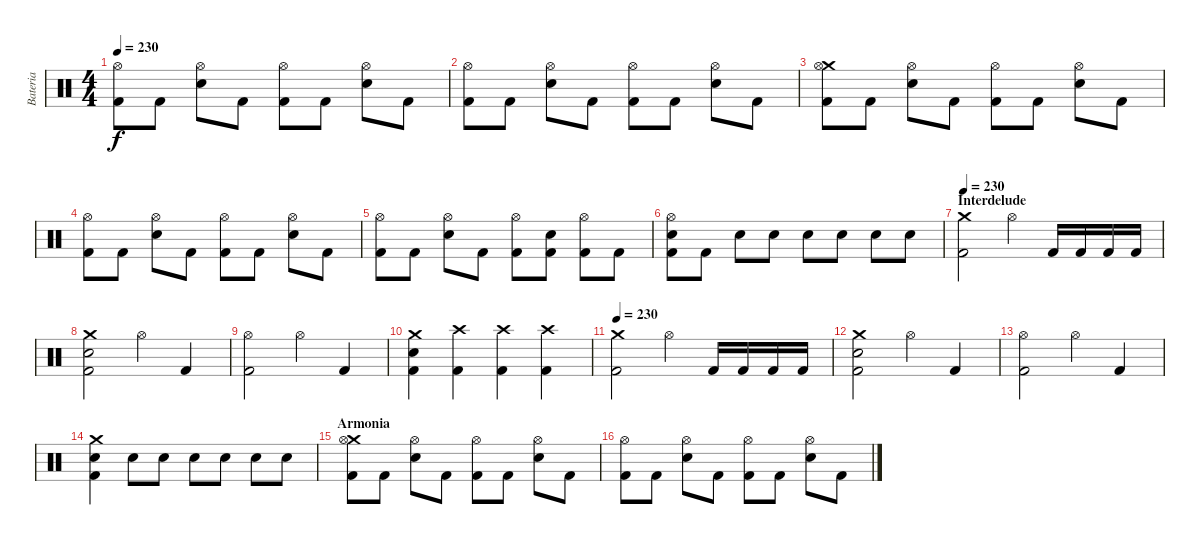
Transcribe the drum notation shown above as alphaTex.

\track ("Bateria" "Bateria") {instrument percussion}
\staff {score}
\articulation defaults
\ts (4 4)
\tempo 230
\clef neutral
\ks c
("Hi-Hat (open)" "Kick (hit) 2").8{dy f} "Kick (hit) 2".8 ("Hi-Hat (open)" "Snare (hit) 2").8 "Kick (hit) 2".8 ("Hi-Hat (open)" "Kick (hit) 2").8 "Kick (hit) 2".8 ("Hi-Hat (open)" "Snare (hit) 2").8 "Kick (hit) 2".8 |
("Hi-Hat (open)" "Kick (hit) 2").8 "Kick (hit) 2".8 ("Hi-Hat (open)" "Snare (hit) 2").8 "Kick (hit) 2".8 ("Hi-Hat (open)" "Kick (hit) 2").8 "Kick (hit) 2".8 ("Hi-Hat (open)" "Snare (hit) 2").8 "Kick (hit) 2".8 |
("Crash medium (hit)" "Hi-Hat (open)" "Kick (hit) 2").8 "Kick (hit) 2".8 ("Hi-Hat (open)" "Snare (hit) 2").8 "Kick (hit) 2".8 ("Hi-Hat (open)" "Kick (hit) 2").8 "Kick (hit) 2".8 ("Hi-Hat (open)" "Snare (hit) 2").8 "Kick (hit) 2".8 |
("Hi-Hat (open)" "Kick (hit) 2").8 "Kick (hit) 2".8 ("Hi-Hat (open)" "Snare (hit) 2").8 "Kick (hit) 2".8 ("Hi-Hat (open)" "Kick (hit) 2").8 "Kick (hit) 2".8 ("Hi-Hat (open)" "Snare (hit) 2").8 "Kick (hit) 2".8 |
("Hi-Hat (open)" "Kick (hit) 2").8 "Kick (hit) 2".8 ("Hi-Hat (open)" "Snare (hit) 2").8 "Kick (hit) 2".8 ("Hi-Hat (open)" "Kick (hit) 2").8 ("Snare (hit) 2" "Kick (hit) 2").8 ("Hi-Hat (open)" "Kick (hit) 2").8 "Kick (hit) 2".8 |
("Snare (hit) 2" "Hi-Hat (open)" "Kick (hit) 2").8 "Kick (hit) 2".8 "Snare (hit) 2".8 "Snare (hit) 2".8 "Snare (hit) 2".8 "Snare (hit) 2".8 "Snare (hit) 2".8 "Snare (hit) 2".8 |
\section ("" "Interdelude")
\tempo 230
("Crash medium (hit)" "Kick (hit) 2").2 "Hi-Hat (open)".4 "Kick (hit) 2".16 "Kick (hit) 2".16 "Kick (hit) 2".16 "Kick (hit) 2".16 |
("Kick (hit) 2" "Snare (hit) 2" "Crash medium (hit)").2 "Hi-Hat (open)".4 "Kick (hit) 2".4 |
("Kick (hit) 2" "Hi-Hat (open)").2 "Hi-Hat (open)".4 "Kick (hit) 2".4 |
("Kick (hit) 2" "Snare (hit) 2" "Crash medium (hit)").4 ("Crash high (hit)" "Kick (hit) 2").4 ("Kick (hit) 2" "Crash high (hit)").4 ("Crash high (hit)" "Kick (hit) 2").4 |
\tempo 230
("Crash medium (hit)" "Kick (hit) 2").2 "Hi-Hat (open)".4 "Kick (hit) 2".16 "Kick (hit) 2".16 "Kick (hit) 2".16 "Kick (hit) 2".16 |
("Kick (hit) 2" "Snare (hit) 2" "Crash medium (hit)").2 "Hi-Hat (open)".4 "Kick (hit) 2".4 |
("Kick (hit) 2" "Hi-Hat (open)").2 "Hi-Hat (open)".4 "Kick (hit) 2".4 |
("Kick (hit) 2" "Snare (hit) 2" "Crash medium (hit)").4 "Snare (hit) 2".8 "Snare (hit) 2".8 "Snare (hit) 2".8 "Snare (hit) 2".8 "Snare (hit) 2".8 "Snare (hit) 2".8 |
\section ("" "Armonia")
("Crash medium (hit)" "Hi-Hat (open)" "Kick (hit) 2").8 "Kick (hit) 2".8 ("Hi-Hat (open)" "Snare (hit) 2").8 "Kick (hit) 2".8 ("Hi-Hat (open)" "Kick (hit) 2").8 "Kick (hit) 2".8 ("Hi-Hat (open)" "Snare (hit) 2").8 "Kick (hit) 2".8 |
("Hi-Hat (open)" "Kick (hit) 2").8 "Kick (hit) 2".8 ("Hi-Hat (open)" "Snare (hit) 2").8 "Kick (hit) 2".8 ("Hi-Hat (open)" "Kick (hit) 2").8 "Kick (hit) 2".8 ("Hi-Hat (open)" "Snare (hit) 2").8 "Kick (hit) 2".8
